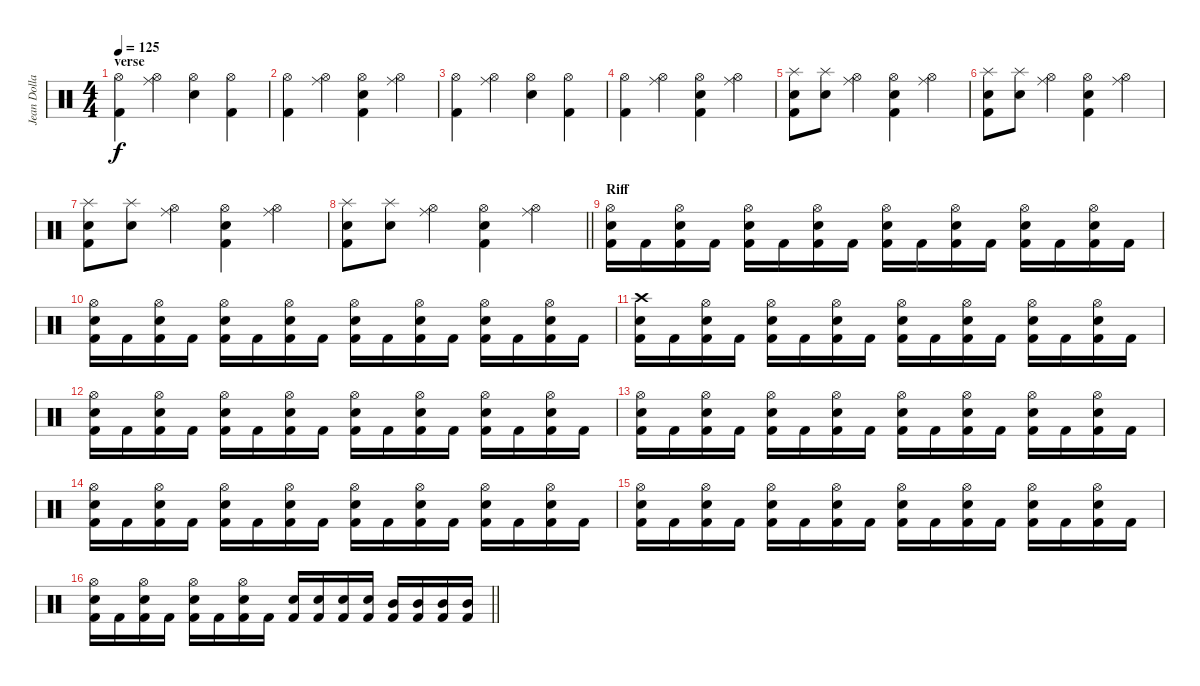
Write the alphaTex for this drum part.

\track ("Jean Dollabella" "Jean Dolla") {instrument percussion}
\staff {score}
\articulation defaults
\ts (4 4)
\section ("" "verse")
\tempo 125
\clef neutral
\ks c
("Hi-Hat (open)" "Kick (hit) 2").4{dy f} ("Hi-Hat (open)" "Ride (middle)").4 ("Hi-Hat (open)" "Snare (hit) 2").4 ("Hi-Hat (open)" "Kick (hit) 2").4 |
("Hi-Hat (open)" "Kick (hit) 2").4 ("Hi-Hat (open)" "Ride (middle)").4 ("Hi-Hat (open)" "Snare (hit) 2" "Kick (hit) 2").4 ("Hi-Hat (open)" "Ride (middle)").4 |
("Hi-Hat (open)" "Kick (hit) 2").4 ("Hi-Hat (open)" "Ride (middle)").4 ("Hi-Hat (open)" "Snare (hit) 2").4 ("Hi-Hat (open)" "Kick (hit) 2").4 |
("Hi-Hat (open)" "Kick (hit) 2").4 ("Hi-Hat (open)" "Ride (middle)").4 ("Hi-Hat (open)" "Snare (hit) 2" "Kick (hit) 2").4 ("Hi-Hat (open)" "Ride (middle)").4 |
("Splash (hit)" "Snare (hit) 2" "Kick (hit) 2").8 ("Splash (hit)" "Snare (hit) 2").8 ("Hi-Hat (open)" "Ride (middle)").4 ("Hi-Hat (open)" "Snare (hit) 2" "Kick (hit) 2").4 ("Hi-Hat (open)" "Ride (middle)").4 |
("Splash (hit)" "Snare (hit) 2" "Kick (hit) 2").8 ("Splash (hit)" "Snare (hit) 2").8 ("Hi-Hat (open)" "Ride (middle)").4 ("Hi-Hat (open)" "Snare (hit) 2" "Kick (hit) 2").4 ("Hi-Hat (open)" "Ride (middle)").4 |
("Splash (hit)" "Snare (hit) 2" "Kick (hit) 2").8 ("Splash (hit)" "Snare (hit) 2").8 ("Hi-Hat (open)" "Ride (middle)").4 ("Hi-Hat (open)" "Snare (hit) 2" "Kick (hit) 2").4 ("Hi-Hat (open)" "Ride (middle)").4 |
\barLineRight lightlight
("Splash (hit)" "Snare (hit) 2" "Kick (hit) 2").8 ("Splash (hit)" "Snare (hit) 2").8 ("Hi-Hat (open)" "Ride (middle)").4 ("Hi-Hat (open)" "Snare (hit) 2" "Kick (hit) 2").4 ("Hi-Hat (open)" "Ride (middle)").4 |
\section ("" "Riff")
("Hi-Hat (open)" "Snare (hit) 2" "Kick (hit) 2").16 "Kick (hit) 2".16 ("Hi-Hat (open)" "Snare (hit) 2" "Kick (hit) 2").16 "Kick (hit) 2".16 ("Hi-Hat (open)" "Snare (hit) 2" "Kick (hit) 2").16 "Kick (hit) 2".16 ("Hi-Hat (open)" "Snare (hit) 2" "Kick (hit) 2").16 "Kick (hit) 2".16 ("Hi-Hat (open)" "Snare (hit) 2" "Kick (hit) 2").16 "Kick (hit) 2".16 ("Hi-Hat (open)" "Snare (hit) 2" "Kick (hit) 2").16 "Kick (hit) 2".16 ("Hi-Hat (open)" "Snare (hit) 2" "Kick (hit) 2").16 "Kick (hit) 2".16 ("Hi-Hat (open)" "Snare (hit) 2" "Kick (hit) 2").16 "Kick (hit) 2".16 |
("Hi-Hat (open)" "Snare (hit) 2" "Kick (hit) 2").16 "Kick (hit) 2".16 ("Hi-Hat (open)" "Snare (hit) 2" "Kick (hit) 2").16 "Kick (hit) 2".16 ("Hi-Hat (open)" "Snare (hit) 2" "Kick (hit) 2").16 "Kick (hit) 2".16 ("Hi-Hat (open)" "Snare (hit) 2" "Kick (hit) 2").16 "Kick (hit) 2".16 ("Hi-Hat (open)" "Snare (hit) 2" "Kick (hit) 2").16 "Kick (hit) 2".16 ("Hi-Hat (open)" "Snare (hit) 2" "Kick (hit) 2").16 "Kick (hit) 2".16 ("Hi-Hat (open)" "Snare (hit) 2" "Kick (hit) 2").16 "Kick (hit) 2".16 ("Hi-Hat (open)" "Snare (hit) 2" "Kick (hit) 2").16 "Kick (hit) 2".16 |
("Crash high (hit)" "Snare (hit) 2" "Kick (hit) 2").16 "Kick (hit) 2".16 ("Hi-Hat (open)" "Snare (hit) 2" "Kick (hit) 2").16 "Kick (hit) 2".16 ("Hi-Hat (open)" "Snare (hit) 2" "Kick (hit) 2").16 "Kick (hit) 2".16 ("Hi-Hat (open)" "Snare (hit) 2" "Kick (hit) 2").16 "Kick (hit) 2".16 ("Hi-Hat (open)" "Snare (hit) 2" "Kick (hit) 2").16 "Kick (hit) 2".16 ("Hi-Hat (open)" "Snare (hit) 2" "Kick (hit) 2").16 "Kick (hit) 2".16 ("Hi-Hat (open)" "Snare (hit) 2" "Kick (hit) 2").16 "Kick (hit) 2".16 ("Hi-Hat (open)" "Snare (hit) 2" "Kick (hit) 2").16 "Kick (hit) 2".16 |
("Hi-Hat (open)" "Snare (hit) 2" "Kick (hit) 2").16 "Kick (hit) 2".16 ("Hi-Hat (open)" "Snare (hit) 2" "Kick (hit) 2").16 "Kick (hit) 2".16 ("Hi-Hat (open)" "Snare (hit) 2" "Kick (hit) 2").16 "Kick (hit) 2".16 ("Hi-Hat (open)" "Snare (hit) 2" "Kick (hit) 2").16 "Kick (hit) 2".16 ("Hi-Hat (open)" "Snare (hit) 2" "Kick (hit) 2").16 "Kick (hit) 2".16 ("Hi-Hat (open)" "Snare (hit) 2" "Kick (hit) 2").16 "Kick (hit) 2".16 ("Hi-Hat (open)" "Snare (hit) 2" "Kick (hit) 2").16 "Kick (hit) 2".16 ("Hi-Hat (open)" "Snare (hit) 2" "Kick (hit) 2").16 "Kick (hit) 2".16 |
("Hi-Hat (open)" "Snare (hit) 2" "Kick (hit) 2").16 "Kick (hit) 2".16 ("Hi-Hat (open)" "Snare (hit) 2" "Kick (hit) 2").16 "Kick (hit) 2".16 ("Hi-Hat (open)" "Snare (hit) 2" "Kick (hit) 2").16 "Kick (hit) 2".16 ("Hi-Hat (open)" "Snare (hit) 2" "Kick (hit) 2").16 "Kick (hit) 2".16 ("Hi-Hat (open)" "Snare (hit) 2" "Kick (hit) 2").16 "Kick (hit) 2".16 ("Hi-Hat (open)" "Snare (hit) 2" "Kick (hit) 2").16 "Kick (hit) 2".16 ("Hi-Hat (open)" "Snare (hit) 2" "Kick (hit) 2").16 "Kick (hit) 2".16 ("Hi-Hat (open)" "Snare (hit) 2" "Kick (hit) 2").16 "Kick (hit) 2".16 |
("Hi-Hat (open)" "Snare (hit) 2" "Kick (hit) 2").16 "Kick (hit) 2".16 ("Hi-Hat (open)" "Snare (hit) 2" "Kick (hit) 2").16 "Kick (hit) 2".16 ("Hi-Hat (open)" "Snare (hit) 2" "Kick (hit) 2").16 "Kick (hit) 2".16 ("Hi-Hat (open)" "Snare (hit) 2" "Kick (hit) 2").16 "Kick (hit) 2".16 ("Hi-Hat (open)" "Snare (hit) 2" "Kick (hit) 2").16 "Kick (hit) 2".16 ("Hi-Hat (open)" "Snare (hit) 2" "Kick (hit) 2").16 "Kick (hit) 2".16 ("Hi-Hat (open)" "Snare (hit) 2" "Kick (hit) 2").16 "Kick (hit) 2".16 ("Hi-Hat (open)" "Snare (hit) 2" "Kick (hit) 2").16 "Kick (hit) 2".16 |
("Hi-Hat (open)" "Snare (hit) 2" "Kick (hit) 2").16 "Kick (hit) 2".16 ("Hi-Hat (open)" "Snare (hit) 2" "Kick (hit) 2").16 "Kick (hit) 2".16 ("Hi-Hat (open)" "Snare (hit) 2" "Kick (hit) 2").16 "Kick (hit) 2".16 ("Hi-Hat (open)" "Snare (hit) 2" "Kick (hit) 2").16 "Kick (hit) 2".16 ("Hi-Hat (open)" "Snare (hit) 2" "Kick (hit) 2").16 "Kick (hit) 2".16 ("Hi-Hat (open)" "Snare (hit) 2" "Kick (hit) 2").16 "Kick (hit) 2".16 ("Hi-Hat (open)" "Snare (hit) 2" "Kick (hit) 2").16 "Kick (hit) 2".16 ("Hi-Hat (open)" "Snare (hit) 2" "Kick (hit) 2").16 "Kick (hit) 2".16 |
\barLineRight lightlight
("Hi-Hat (open)" "Snare (hit) 2" "Kick (hit) 2").16 "Kick (hit) 2".16 ("Hi-Hat (open)" "Snare (hit) 2" "Kick (hit) 2").16 "Kick (hit) 2".16 ("Hi-Hat (open)" "Snare (hit) 2" "Kick (hit) 2").16 "Kick (hit) 2".16 ("Hi-Hat (open)" "Snare (hit) 2" "Kick (hit) 2").16 "Kick (hit) 2".16 ("Snare (hit) 2" "Kick (hit) 2").16 ("Snare (hit) 2" "Kick (hit) 2").16 ("Snare (hit) 2" "Kick (hit) 2").16 ("Snare (hit) 2" "Kick (hit) 2").16 ("Mid Tom (hit)" "Kick (hit) 2").16 ("Mid Tom (hit)" "Kick (hit) 2").16 ("Mid Tom (hit)" "Kick (hit) 2").16 ("Mid Tom (hit)" "Kick (hit) 2").16
